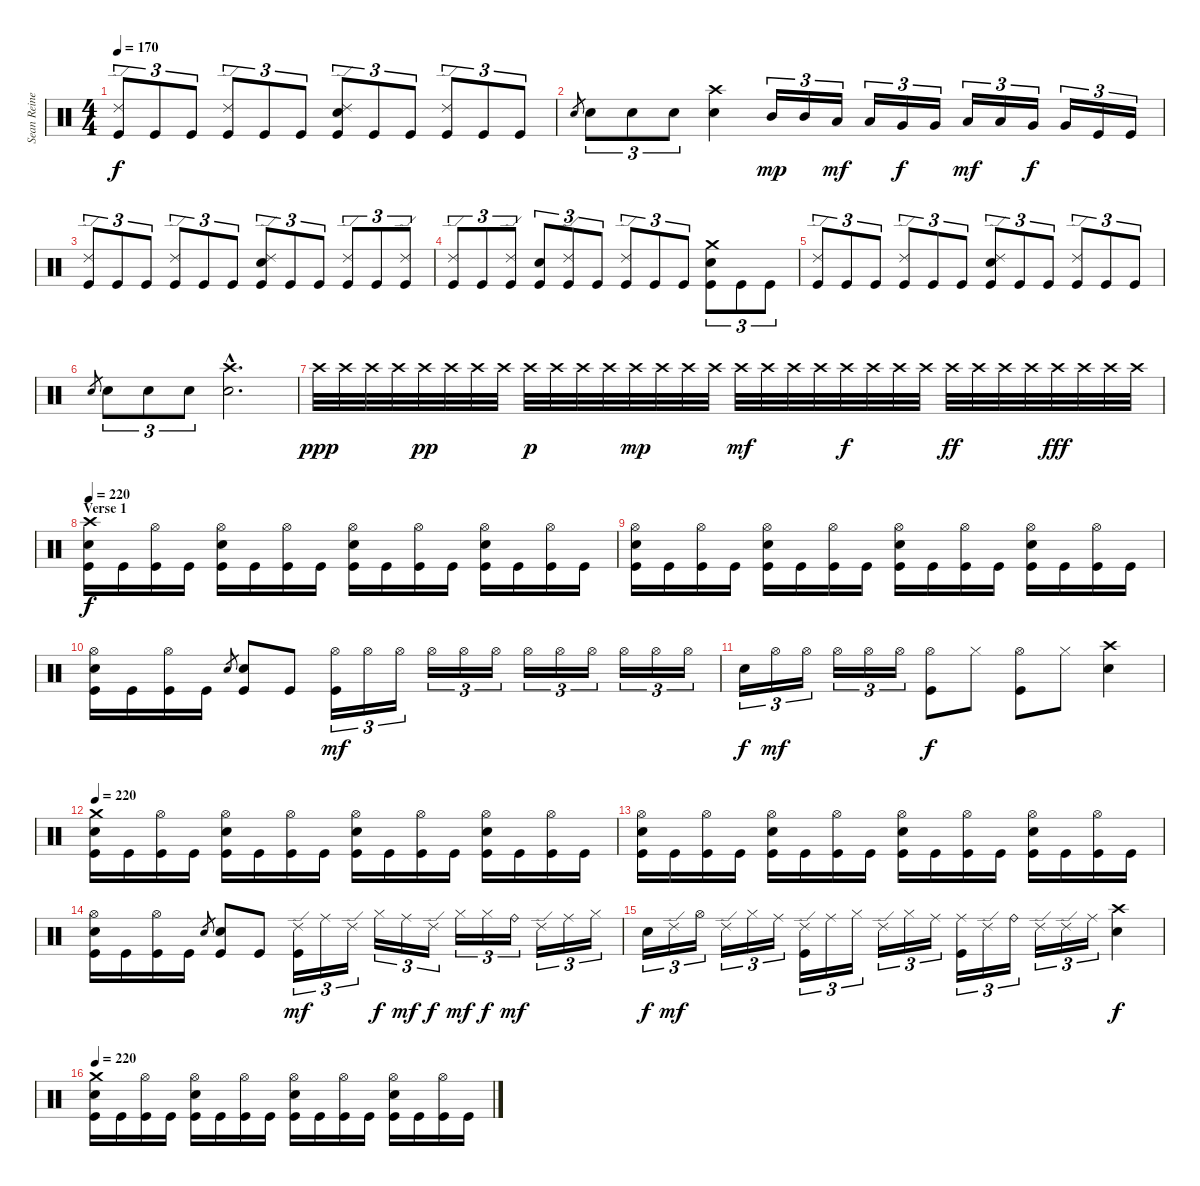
\track ("Sean Reinert " "Sean Reine") {instrument percussion}
\staff {score}
\articulation defaults
\ts (4 4)
\tempo 170
\clef neutral
\ks c
("Ride (edge) 2" "Kick (hit)").8{tu (3 2) dy f} "Kick (hit)".8{tu (3 2)} "Kick (hit)".8{tu (3 2)} ("Ride (edge) 2" "Kick (hit)").8{tu (3 2)} "Kick (hit)".8{tu (3 2)} "Kick (hit)".8{tu (3 2)} ("Ride (edge) 2" "Electric Snare (hit)" "Kick (hit)").8{tu (3 2)} "Kick (hit)".8{tu (3 2)} "Kick (hit)".8{tu (3 2)} ("Ride (edge) 2" "Kick (hit)").8{tu (3 2)} "Kick (hit)".8{tu (3 2)} "Kick (hit)".8{tu (3 2)} |
"Electric Snare (hit)".8{gr} "Electric Snare (hit)".8{tu (3 2)} "Electric Snare (hit)".8{tu (3 2)} "Electric Snare (hit)".8{tu (3 2)} ("Crash high (hit)" "Electric Snare (hit)").4 "Mid Tom (hit)".16{tu (3 2) dy mp} "Mid Tom (hit)".16{tu (3 2)} "Low Tom (hit)".16{tu (3 2) dy mf} "Low Tom (hit)".16{tu (3 2)} "Very Low Tom (hit)".16{tu (3 2) dy f} "Very Low Tom (hit)".16{tu (3 2)} "Low Tom (hit)".16{tu (3 2) dy mf} "Low Tom (hit)".16{tu (3 2)} "Very Low Tom (hit)".16{tu (3 2) dy f} "Very Low Tom (hit)".16{tu (3 2)} "Kick (hit)".16{tu (3 2)} "Kick (hit)".16{tu (3 2)} |
("Ride (edge) 2" "Kick (hit)").8{tu (3 2)} "Kick (hit)".8{tu (3 2)} "Kick (hit)".8{tu (3 2)} ("Ride (edge) 2" "Kick (hit)").8{tu (3 2)} "Kick (hit)".8{tu (3 2)} "Kick (hit)".8{tu (3 2)} ("Ride (edge) 2" "Electric Snare (hit)" "Kick (hit)").8{tu (3 2)} "Kick (hit)".8{tu (3 2)} "Kick (hit)".8{tu (3 2)} ("Ride (edge) 2" "Kick (hit)").8{tu (3 2)} "Kick (hit)".8{tu (3 2)} ("Ride (edge) 2" "Kick (hit)").8{tu (3 2)} |
("Ride (edge) 2" "Kick (hit)").8{tu (3 2)} "Kick (hit)".8{tu (3 2)} ("Ride (edge) 2" "Kick (hit)").8{tu (3 2)} ("Electric Snare (hit)" "Kick (hit)").8{tu (3 2)} ("Ride (edge) 2" "Kick (hit)").8{tu (3 2)} "Kick (hit)".8{tu (3 2)} ("Ride (edge) 2" "Kick (hit)").8{tu (3 2)} "Kick (hit)".8{tu (3 2)} "Kick (hit)".8{tu (3 2)} ("Crash medium (hit)" "Electric Snare (hit)" "Kick (hit)").8{tu (3 2)} "Kick (hit)".8{tu (3 2)} "Kick (hit)".8{tu (3 2)} |
("Ride (edge) 2" "Kick (hit)").8{tu (3 2)} "Kick (hit)".8{tu (3 2)} "Kick (hit)".8{tu (3 2)} ("Ride (edge) 2" "Kick (hit)").8{tu (3 2)} "Kick (hit)".8{tu (3 2)} "Kick (hit)".8{tu (3 2)} ("Ride (edge) 2" "Electric Snare (hit)" "Kick (hit)").8{tu (3 2)} "Kick (hit)".8{tu (3 2)} "Kick (hit)".8{tu (3 2)} ("Ride (edge) 2" "Kick (hit)").8{tu (3 2)} "Kick (hit)".8{tu (3 2)} "Kick (hit)".8{tu (3 2)} |
"Electric Snare (hit)".8{gr} "Electric Snare (hit)".8{tu (3 2)} "Electric Snare (hit)".8{tu (3 2)} "Electric Snare (hit)".8{tu (3 2)} ("Crash high (hit)"{hac} "Electric Snare (hit)"{hac}).2{d} |
"Crash high (hit)".32{dy ppp} "Crash high (hit)".32 "Crash high (hit)".32 "Crash high (hit)".32 "Crash high (hit)".32{dy pp} "Crash high (hit)".32 "Crash high (hit)".32 "Crash high (hit)".32 "Crash high (hit)".32{dy p} "Crash high (hit)".32 "Crash high (hit)".32 "Crash high (hit)".32 "Crash high (hit)".32{dy mp} "Crash high (hit)".32 "Crash high (hit)".32 "Crash high (hit)".32 "Crash high (hit)".32{dy mf} "Crash high (hit)".32 "Crash high (hit)".32 "Crash high (hit)".32 "Crash high (hit)".32{dy f} "Crash high (hit)".32 "Crash high (hit)".32 "Crash high (hit)".32 "Crash high (hit)".32{dy ff} "Crash high (hit)".32 "Crash high (hit)".32 "Crash high (hit)".32 "Crash high (hit)".32{dy fff} "Crash high (hit)".32 "Crash high (hit)".32 "Crash high (hit)".32 |
\section ("" "Verse 1")
\tempo 220
("Crash high (hit)" "Electric Snare (hit)" "Kick (hit)").16{dy f} "Kick (hit)".16 ("Hi-Hat (open)" "Kick (hit)").16 "Kick (hit)".16 ("Hi-Hat (open)" "Electric Snare (hit)" "Kick (hit)").16 "Kick (hit)".16 ("Hi-Hat (open)" "Kick (hit)").16 "Kick (hit)".16 ("Hi-Hat (open)" "Electric Snare (hit)" "Kick (hit)").16 "Kick (hit)".16 ("Hi-Hat (open)" "Kick (hit)").16 "Kick (hit)".16 ("Hi-Hat (open)" "Electric Snare (hit)" "Kick (hit)").16 "Kick (hit)".16 ("Hi-Hat (open)" "Kick (hit)").16 "Kick (hit)".16 |
("Hi-Hat (open)" "Electric Snare (hit)" "Kick (hit)").16 "Kick (hit)".16 ("Hi-Hat (open)" "Kick (hit)").16 "Kick (hit)".16 ("Hi-Hat (open)" "Electric Snare (hit)" "Kick (hit)").16 "Kick (hit)".16 ("Hi-Hat (open)" "Kick (hit)").16 "Kick (hit)".16 ("Hi-Hat (open)" "Electric Snare (hit)" "Kick (hit)").16 "Kick (hit)".16 ("Hi-Hat (open)" "Kick (hit)").16 "Kick (hit)".16 ("Hi-Hat (open)" "Electric Snare (hit)" "Kick (hit)").16 "Kick (hit)".16 ("Hi-Hat (open)" "Kick (hit)").16 "Kick (hit)".16 |
("Hi-Hat (open)" "Electric Snare (hit)" "Kick (hit)").16 "Kick (hit)".16 ("Hi-Hat (open)" "Kick (hit)").16 "Kick (hit)".16 "Electric Snare (hit)".8{gr} ("Electric Snare (hit)" "Kick (hit)").8 "Kick (hit)".8 ("Hi-Hat (open)" "Kick (hit)").16{tu (3 2) dy mf} "Hi-Hat (open)".16{tu (3 2)} "Hi-Hat (open)".16{tu (3 2)} "Hi-Hat (open)".16{tu (3 2)} "Hi-Hat (open)".16{tu (3 2)} "Hi-Hat (open)".16{tu (3 2)} "Hi-Hat (open)".16{tu (3 2)} "Hi-Hat (open)".16{tu (3 2)} "Hi-Hat (open)".16{tu (3 2)} "Hi-Hat (open)".16{tu (3 2)} "Hi-Hat (open)".16{tu (3 2)} "Hi-Hat (open)".16{tu (3 2)} |
"Electric Snare (hit)".16{tu (3 2) dy f} "Hi-Hat (open)".16{tu (3 2) dy mf} "Hi-Hat (open)".16{tu (3 2)} "Hi-Hat (open)".16{tu (3 2)} "Hi-Hat (open)".16{tu (3 2)} "Hi-Hat (open)".16{tu (3 2)} ("Hi-Hat (open)" "Kick (hit)").8{dy f} "Hi-Hat (closed)".8 ("Hi-Hat (open)" "Kick (hit)").8 "Hi-Hat (closed)".8 ("Crash high (hit)" "Electric Snare (hit)").4 |
\tempo 220
("Crash medium (hit)" "Electric Snare (hit)" "Kick (hit)").16 "Kick (hit)".16 ("Hi-Hat (open)" "Kick (hit)").16 "Kick (hit)".16 ("Hi-Hat (open)" "Electric Snare (hit)" "Kick (hit)").16 "Kick (hit)".16 ("Hi-Hat (open)" "Kick (hit)").16 "Kick (hit)".16 ("Hi-Hat (open)" "Electric Snare (hit)" "Kick (hit)").16 "Kick (hit)".16 ("Hi-Hat (open)" "Kick (hit)").16 "Kick (hit)".16 ("Hi-Hat (open)" "Electric Snare (hit)" "Kick (hit)").16 "Kick (hit)".16 ("Hi-Hat (open)" "Kick (hit)").16 "Kick (hit)".16 |
("Hi-Hat (open)" "Electric Snare (hit)" "Kick (hit)").16 "Kick (hit)".16 ("Hi-Hat (open)" "Kick (hit)").16 "Kick (hit)".16 ("Hi-Hat (open)" "Electric Snare (hit)" "Kick (hit)").16 "Kick (hit)".16 ("Hi-Hat (open)" "Kick (hit)").16 "Kick (hit)".16 ("Hi-Hat (open)" "Electric Snare (hit)" "Kick (hit)").16 "Kick (hit)".16 ("Hi-Hat (open)" "Kick (hit)").16 "Kick (hit)".16 ("Hi-Hat (open)" "Electric Snare (hit)" "Kick (hit)").16 "Kick (hit)".16 ("Hi-Hat (open)" "Kick (hit)").16 "Kick (hit)".16 |
("Hi-Hat (open)" "Electric Snare (hit)" "Kick (hit)").16 "Kick (hit)".16 ("Hi-Hat (open)" "Kick (hit)").16 "Kick (hit)".16 "Electric Snare (hit)".8{gr} ("Electric Snare (hit)" "Kick (hit)").8 "Kick (hit)".8 ("Ride (edge) 2" "Kick (hit)").16{tu (3 2) dy mf} "Ride (middle)".16{tu (3 2)} "Ride (edge) 2".16{tu (3 2)} "Hi-Hat (closed)".16{tu (3 2) dy f} "Ride (middle)".16{tu (3 2) dy mf} "Ride (edge) 2".16{tu (3 2) dy f} "Hi-Hat (closed)".16{tu (3 2) dy mf} "Hi-Hat (closed)".16{tu (3 2) dy f} "Ride (bell)".16{tu (3 2) dy mf} "Ride (edge) 2".16{tu (3 2)} "Ride (middle)".16{tu (3 2)} "Hi-Hat (closed)".16{tu (3 2)} |
"Electric Snare (hit)".16{tu (3 2) dy f} "Ride (edge) 2".16{tu (3 2) dy mf} "Hi-Hat (open)".16{tu (3 2)} "Ride (edge) 2".16{tu (3 2)} "Hi-Hat (closed)".16{tu (3 2)} "Ride (middle)".16{tu (3 2)} ("Ride (edge) 2" "Kick (hit)").16{tu (3 2)} "Ride (middle)".16{tu (3 2)} "Hi-Hat (closed)".16{tu (3 2)} "Ride (edge) 2".16{tu (3 2)} "Hi-Hat (closed)".16{tu (3 2)} "Ride (middle)".16{tu (3 2)} ("Ride (middle)" "Kick (hit)").16{tu (3 2)} "Ride (edge) 2".16{tu (3 2)} "Ride (bell)".16{tu (3 2)} "Ride (edge) 2".16{tu (3 2)} "Ride (edge) 2".16{tu (3 2)} "Ride (middle)".16{tu (3 2)} ("Crash high (hit)" "Electric Snare (hit)").4{dy f} |
\tempo 220
("Crash medium (hit)" "Electric Snare (hit)" "Kick (hit)").16 "Kick (hit)".16 ("Hi-Hat (open)" "Kick (hit)").16 "Kick (hit)".16 ("Hi-Hat (open)" "Electric Snare (hit)" "Kick (hit)").16 "Kick (hit)".16 ("Hi-Hat (open)" "Kick (hit)").16 "Kick (hit)".16 ("Hi-Hat (open)" "Electric Snare (hit)" "Kick (hit)").16 "Kick (hit)".16 ("Hi-Hat (open)" "Kick (hit)").16 "Kick (hit)".16 ("Hi-Hat (open)" "Electric Snare (hit)" "Kick (hit)").16 "Kick (hit)".16 ("Hi-Hat (open)" "Kick (hit)").16 "Kick (hit)".16
